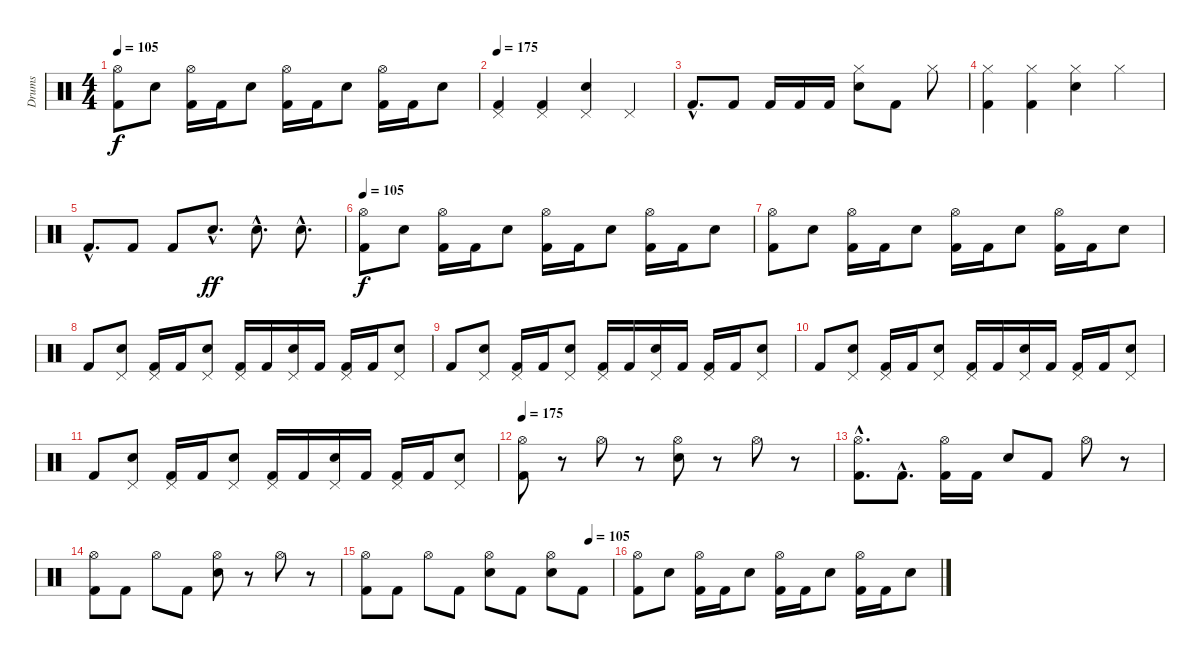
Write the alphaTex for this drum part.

\track ("Drums" "Drums") {instrument percussion}
\staff {score}
\articulation defaults
\ts (4 4)
\tempo 105
\clef neutral
\ks c
("Hi-Hat (open)" "Kick (hit) 2").8{dy f} "Electric Snare (hit)".8 ("Hi-Hat (open)" "Kick (hit) 2").16 "Kick (hit) 2".16 "Electric Snare (hit)".8 ("Hi-Hat (open)" "Kick (hit) 2").16 "Kick (hit) 2".16 "Electric Snare (hit)".8 ("Hi-Hat (open)" "Kick (hit) 2").16 "Kick (hit) 2".16 "Electric Snare (hit)".8 |
\tempo 175
("Pedal Hi-Hat (hit)" "Kick (hit) 2").4 ("Pedal Hi-Hat (hit)" "Kick (hit) 2").4 ("Pedal Hi-Hat (hit)" "Electric Snare (hit)").4 "Pedal Hi-Hat (hit)".4 |
"Kick (hit) 2"{hac}.8{d} "Kick (hit) 2".8 "Kick (hit) 2".16 "Kick (hit) 2".16 "Kick (hit) 2".16 ("Hi-Hat (closed)" "Electric Snare (hit)").8 "Kick (hit) 2".8 "Hi-Hat (closed)".8 |
("Hi-Hat (closed)" "Kick (hit) 2").4 ("Hi-Hat (closed)" "Kick (hit) 2").4 ("Hi-Hat (closed)" "Electric Snare (hit)").4 "Hi-Hat (closed)".4 |
"Kick (hit) 2"{hac}.8{d} "Kick (hit) 2".8 "Kick (hit) 2".8 "Electric Snare (hit)"{hac}.8{d dy ff} "Electric Snare (hit)"{hac}.8{d} "Electric Snare (hit)"{hac}.8{d} |
\tempo 105
("Hi-Hat (open)" "Kick (hit) 2").8{dy f} "Electric Snare (hit)".8 ("Hi-Hat (open)" "Kick (hit) 2").16 "Kick (hit) 2".16 "Electric Snare (hit)".8 ("Hi-Hat (open)" "Kick (hit) 2").16 "Kick (hit) 2".16 "Electric Snare (hit)".8 ("Hi-Hat (open)" "Kick (hit) 2").16 "Kick (hit) 2".16 "Electric Snare (hit)".8 |
("Hi-Hat (open)" "Kick (hit) 2").8 "Electric Snare (hit)".8 ("Hi-Hat (open)" "Kick (hit) 2").16 "Kick (hit) 2".16 "Electric Snare (hit)".8 ("Hi-Hat (open)" "Kick (hit) 2").16 "Kick (hit) 2".16 "Electric Snare (hit)".8 ("Hi-Hat (open)" "Kick (hit) 2").16 "Kick (hit) 2".16 "Electric Snare (hit)".8 |
"Kick (hit) 2".8{volume 13} ("Pedal Hi-Hat (hit)" "Electric Snare (hit)").8 ("Pedal Hi-Hat (hit)" "Kick (hit) 2").16 "Kick (hit) 2".16 ("Pedal Hi-Hat (hit)" "Electric Snare (hit)").8 ("Pedal Hi-Hat (hit)" "Kick (hit) 2").16 "Kick (hit) 2".16 ("Pedal Hi-Hat (hit)" "Electric Snare (hit)").16 "Kick (hit) 2".16 ("Pedal Hi-Hat (hit)" "Kick (hit) 2").16 "Kick (hit) 2".16 ("Pedal Hi-Hat (hit)" "Electric Snare (hit)").8 |
"Kick (hit) 2".8{volume 13} ("Pedal Hi-Hat (hit)" "Electric Snare (hit)").8 ("Pedal Hi-Hat (hit)" "Kick (hit) 2").16 "Kick (hit) 2".16 ("Pedal Hi-Hat (hit)" "Electric Snare (hit)").8 ("Pedal Hi-Hat (hit)" "Kick (hit) 2").16 "Kick (hit) 2".16 ("Pedal Hi-Hat (hit)" "Electric Snare (hit)").16 "Kick (hit) 2".16 ("Pedal Hi-Hat (hit)" "Kick (hit) 2").16 "Kick (hit) 2".16 ("Pedal Hi-Hat (hit)" "Electric Snare (hit)").8 |
"Kick (hit) 2".8{volume 13} ("Pedal Hi-Hat (hit)" "Electric Snare (hit)").8 ("Pedal Hi-Hat (hit)" "Kick (hit) 2").16 "Kick (hit) 2".16 ("Pedal Hi-Hat (hit)" "Electric Snare (hit)").8 ("Pedal Hi-Hat (hit)" "Kick (hit) 2").16 "Kick (hit) 2".16 ("Pedal Hi-Hat (hit)" "Electric Snare (hit)").16 "Kick (hit) 2".16 ("Pedal Hi-Hat (hit)" "Kick (hit) 2").16 "Kick (hit) 2".16 ("Pedal Hi-Hat (hit)" "Electric Snare (hit)").8 |
"Kick (hit) 2".8{volume 13} ("Pedal Hi-Hat (hit)" "Electric Snare (hit)").8 ("Pedal Hi-Hat (hit)" "Kick (hit) 2").16 "Kick (hit) 2".16 ("Pedal Hi-Hat (hit)" "Electric Snare (hit)").8 ("Pedal Hi-Hat (hit)" "Kick (hit) 2").16 "Kick (hit) 2".16 ("Pedal Hi-Hat (hit)" "Electric Snare (hit)").16 "Kick (hit) 2".16 ("Pedal Hi-Hat (hit)" "Kick (hit) 2").16 "Kick (hit) 2".16 ("Pedal Hi-Hat (hit)" "Electric Snare (hit)").8 |
\tempo 175
("Hi-Hat (open)" "Kick (hit) 2").8 r.8 "Hi-Hat (open)".8 r.8 ("Hi-Hat (open)" "Electric Snare (hit)").8 r.8 "Hi-Hat (open)".8 r.8 |
("Hi-Hat (open)"{hac} "Kick (hit) 2"{hac}).8{d} "Kick (hit) 2"{hac}.8{d} ("Hi-Hat (open)" "Kick (hit) 2").16 "Kick (hit) 2".16 "Electric Snare (hit)".8 "Kick (hit) 2".8 "Hi-Hat (open)".8 r.8 |
("Hi-Hat (open)" "Kick (hit) 2").8 "Kick (hit) 2".8 "Hi-Hat (open)".8 "Kick (hit) 2".8 ("Hi-Hat (open)" "Electric Snare (hit)").8 r.8 "Hi-Hat (open)".8 r.8 |
\tempo (105 0.90625)
("Hi-Hat (open)" "Kick (hit) 2").8 "Kick (hit) 2".8 "Hi-Hat (open)".8 "Kick (hit) 2".8 ("Hi-Hat (open)" "Electric Snare (hit)").8 "Kick (hit) 2".8 ("Hi-Hat (open)" "Electric Snare (hit)").8 "Kick (hit) 2".8 |
("Hi-Hat (open)" "Kick (hit) 2").8 "Electric Snare (hit)".8 ("Hi-Hat (open)" "Kick (hit) 2").16 "Kick (hit) 2".16 "Electric Snare (hit)".8 ("Hi-Hat (open)" "Kick (hit) 2").16 "Kick (hit) 2".16 "Electric Snare (hit)".8 ("Hi-Hat (open)" "Kick (hit) 2").16 "Kick (hit) 2".16 "Electric Snare (hit)".8
